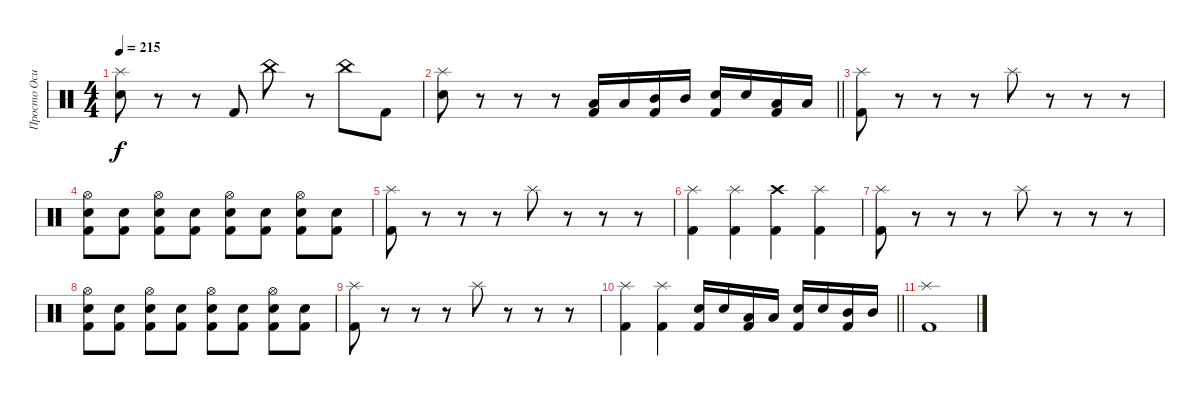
\track ("Просто Осип" "Просто Оси") {instrument percussion}
\staff {score}
\articulation defaults
\ts (4 4)
\tempo 215
\clef neutral
\ks c
("Splash (hit)" "Electric Snare (hit)").8{dy f} r.8 r.8 "Kick (hit) 2".8 "China (hit)".8 r.8 "China (hit)".8 "Kick (hit) 2".8 |
\barLineRight lightlight
("Splash (hit)" "Electric Snare (hit)").8 r.8 r.8 r.8 ("Kick (hit) 2" "Low Tom (hit)").16 "Low Tom (hit)".16 ("Kick (hit) 2" "Mid Tom (hit)").16 "Mid Tom (hit)".16 ("Kick (hit) 2" "Electric Snare (hit)").16 "Electric Snare (hit)".16 ("Kick (hit) 2" "Low Tom (hit)").16 "Low Tom (hit)".16 |
("Kick (hit) 2" "Splash (hit)").8 r.8 r.8 r.8 "Splash (hit)".8 r.8 r.8 r.8 |
("Kick (hit) 2" "Electric Snare (hit)" "Hi-Hat (open)").8 ("Kick (hit) 2" "Electric Snare (hit)").8 ("Kick (hit) 2" "Electric Snare (hit)" "Hi-Hat (open)").8 ("Kick (hit) 2" "Electric Snare (hit)").8 ("Kick (hit) 2" "Electric Snare (hit)" "Hi-Hat (open)").8 ("Kick (hit) 2" "Electric Snare (hit)").8 ("Kick (hit) 2" "Electric Snare (hit)" "Hi-Hat (open)").8 ("Kick (hit) 2" "Electric Snare (hit)").8 |
("Kick (hit) 2" "Splash (hit)").8 r.8 r.8 r.8 "Splash (hit)".8 r.8 r.8 r.8 |
("Kick (hit) 2" "Splash (hit)").4 ("Kick (hit) 2" "Splash (hit)").4 ("Kick (hit) 2" "Crash high (hit)").4 ("Kick (hit) 2" "Splash (hit)").4 |
("Kick (hit) 2" "Splash (hit)").8 r.8 r.8 r.8 "Splash (hit)".8 r.8 r.8 r.8 |
("Kick (hit) 2" "Electric Snare (hit)" "Hi-Hat (open)").8 ("Kick (hit) 2" "Electric Snare (hit)").8 ("Kick (hit) 2" "Electric Snare (hit)" "Hi-Hat (open)").8 ("Kick (hit) 2" "Electric Snare (hit)").8 ("Kick (hit) 2" "Electric Snare (hit)" "Hi-Hat (open)").8 ("Kick (hit) 2" "Electric Snare (hit)").8 ("Kick (hit) 2" "Electric Snare (hit)" "Hi-Hat (open)").8 ("Kick (hit) 2" "Electric Snare (hit)").8 |
("Kick (hit) 2" "Splash (hit)").8 r.8 r.8 r.8 "Splash (hit)".8 r.8 r.8 r.8 |
\barLineRight lightlight
("Kick (hit) 2" "Splash (hit)").4 ("Kick (hit) 2" "Splash (hit)").4 ("Kick (hit) 2" "Electric Snare (hit)").16 "Electric Snare (hit)".16 ("Kick (hit) 2" "Low Tom (hit)").16 "Low Tom (hit)".16 ("Kick (hit) 2" "Electric Snare (hit)").16 "Electric Snare (hit)".16 ("Kick (hit) 2" "Mid Tom (hit)").16 "Mid Tom (hit)".16 |
("Kick (hit) 2" "Splash (hit)").1
